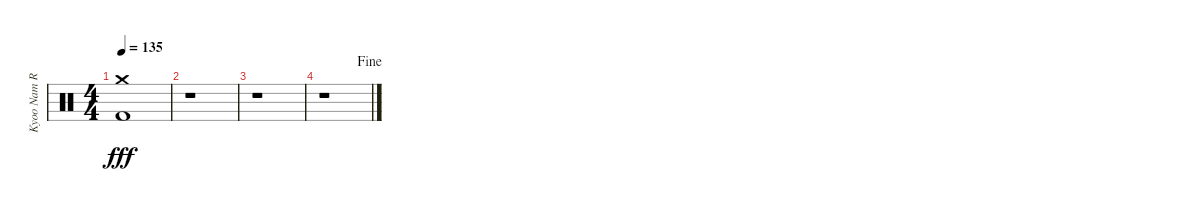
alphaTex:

\track ("Kyoo Nam Rossi (Drums)" "Kyoo Nam R") {instrument percussion}
\staff {score}
\articulation defaults
\ts (4 4)
\tempo 135
\clef neutral
\ks c
("Crash medium (hit)" "Kick (hit) 2").1{dy fff} |
r.1 |
r.1 |
\jump fine
r.1
